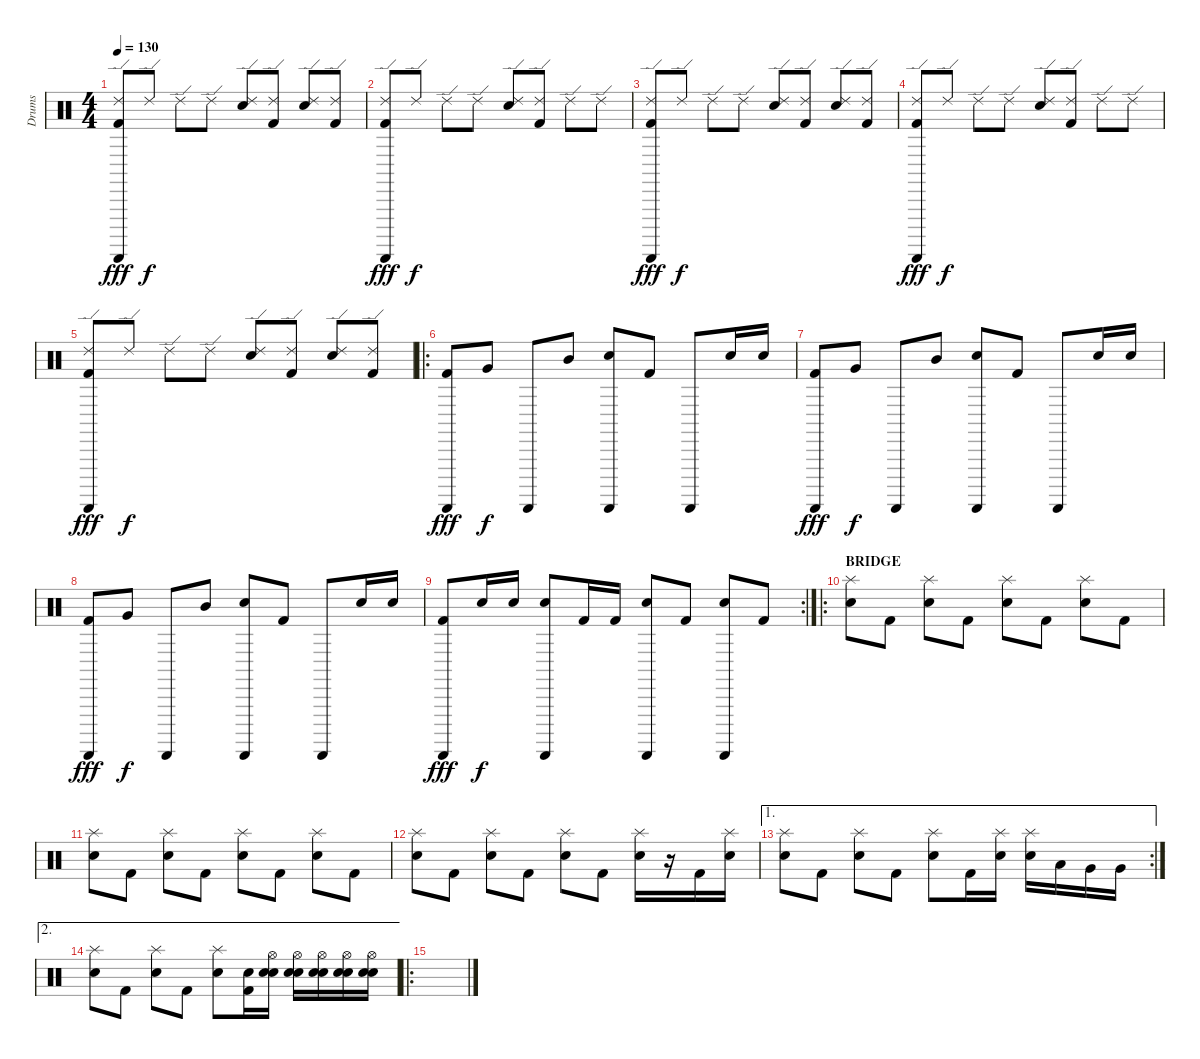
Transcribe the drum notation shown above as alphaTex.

\track ("Drums" "Drums") {instrument percussion}
\staff {score}
\articulation defaults
\ts (4 4)
\tempo 130
\clef neutral
\ks c
("Guiro (scrap-return)" "Kick (hit) 2" "Ride (edge) 2").8{dy fff} "Ride (edge) 2".8{dy f} "Ride (edge) 2".8 "Ride (edge) 2".8 ("Electric Snare (hit)" "Ride (edge) 2").8 ("Kick (hit) 2" "Ride (edge) 2").8 ("Electric Snare (hit)" "Ride (edge) 2").8 ("Kick (hit) 2" "Ride (edge) 2").8 |
("Guiro (scrap-return)" "Kick (hit) 2" "Ride (edge) 2").8{dy fff} "Ride (edge) 2".8{dy f} "Ride (edge) 2".8 "Ride (edge) 2".8 ("Electric Snare (hit)" "Ride (edge) 2").8 ("Kick (hit) 2" "Ride (edge) 2").8 "Ride (edge) 2".8 "Ride (edge) 2".8 |
("Guiro (scrap-return)" "Kick (hit) 2" "Ride (edge) 2").8{dy fff} "Ride (edge) 2".8{dy f} "Ride (edge) 2".8 "Ride (edge) 2".8 ("Electric Snare (hit)" "Ride (edge) 2").8 ("Kick (hit) 2" "Ride (edge) 2").8 ("Electric Snare (hit)" "Ride (edge) 2").8 ("Kick (hit) 2" "Ride (edge) 2").8 |
("Guiro (scrap-return)" "Kick (hit) 2" "Ride (edge) 2").8{dy fff} "Ride (edge) 2".8{dy f} "Ride (edge) 2".8 "Ride (edge) 2".8 ("Electric Snare (hit)" "Ride (edge) 2").8 ("Kick (hit) 2" "Ride (edge) 2").8 "Ride (edge) 2".8 "Ride (edge) 2".8 |
("Guiro (scrap-return)" "Kick (hit) 2" "Ride (edge) 2").8{dy fff} "Ride (edge) 2".8{dy f} "Ride (edge) 2".8 "Ride (edge) 2".8 ("Electric Snare (hit)" "Ride (edge) 2").8 ("Kick (hit) 2" "Ride (edge) 2").8 ("Electric Snare (hit)" "Ride (edge) 2").8 ("Kick (hit) 2" "Ride (edge) 2").8 |
\ro
("Guiro (scrap-return)" "Kick (hit) 2").8{dy fff} "Very Low Tom (hit)".8{dy f} "Guiro (scrap-return)".8 "Mid Tom (hit)".8 ("Guiro (scrap-return)" "Electric Snare (hit)").8 "Kick (hit) 2".8 "Guiro (scrap-return)".8 "Electric Snare (hit)".16 "Electric Snare (hit)".16 |
("Guiro (scrap-return)" "Kick (hit) 2").8{dy fff} "Very Low Tom (hit)".8{dy f} "Guiro (scrap-return)".8 "Mid Tom (hit)".8 ("Guiro (scrap-return)" "Electric Snare (hit)").8 "Kick (hit) 2".8 "Guiro (scrap-return)".8 "Electric Snare (hit)".16 "Electric Snare (hit)".16 |
("Guiro (scrap-return)" "Kick (hit) 2").8{dy fff} "Very Low Tom (hit)".8{dy f} "Guiro (scrap-return)".8 "Mid Tom (hit)".8 ("Guiro (scrap-return)" "Electric Snare (hit)").8 "Kick (hit) 2".8 "Guiro (scrap-return)".8 "Electric Snare (hit)".16 "Electric Snare (hit)".16 |
\rc 2
("Guiro (scrap-return)" "Kick (hit) 2").8{dy fff} "Electric Snare (hit)".16{dy f} "Electric Snare (hit)".16 ("Guiro (scrap-return)" "Electric Snare (hit)").8 "Kick (hit) 2".16 "Kick (hit) 2".16 ("Guiro (scrap-return)" "Electric Snare (hit)").8 "Kick (hit) 2".8 ("Guiro (scrap-return)" "Electric Snare (hit)").8 "Kick (hit) 2".8 |
\ro
\section ("" "BRIDGE")
("Splash (hit)" "Electric Snare (hit)").8 "Kick (hit) 2".8 ("Splash (hit)" "Electric Snare (hit)").8 "Kick (hit) 2".8 ("Splash (hit)" "Electric Snare (hit)").8 "Kick (hit) 2".8 ("Splash (hit)" "Electric Snare (hit)").8 "Kick (hit) 2".8 |
("Splash (hit)" "Electric Snare (hit)").8 "Kick (hit) 2".8 ("Splash (hit)" "Electric Snare (hit)").8 "Kick (hit) 2".8 ("Splash (hit)" "Electric Snare (hit)").8 "Kick (hit) 2".8 ("Splash (hit)" "Electric Snare (hit)").8 "Kick (hit) 2".8 |
("Splash (hit)" "Electric Snare (hit)").8 "Kick (hit) 2".8 ("Splash (hit)" "Electric Snare (hit)").8 "Kick (hit) 2".8 ("Splash (hit)" "Electric Snare (hit)").8 "Kick (hit) 2".8 ("Splash (hit)" "Electric Snare (hit)").16 r.16 "Kick (hit) 2".16 ("Splash (hit)" "Electric Snare (hit)").16 |
\ae 1
\rc 2
("Splash (hit)" "Electric Snare (hit)").8 "Kick (hit) 2".8 ("Splash (hit)" "Electric Snare (hit)").8 "Kick (hit) 2".8 ("Splash (hit)" "Electric Snare (hit)").8 "Kick (hit) 2".16 ("Splash (hit)" "Electric Snare (hit)").16 ("Splash (hit)" "Electric Snare (hit)").16 "Low Tom (hit)".16 "Very Low Tom (hit)".16 "Very Low Tom (hit)".16 |
\ae 2
("Splash (hit)" "Electric Snare (hit)").8 "Kick (hit) 2".8 ("Splash (hit)" "Electric Snare (hit)").8 "Kick (hit) 2".8 ("Splash (hit)" "Electric Snare (hit)").8 ("Electric Snare (hit)" "Kick (hit) 2").16 ("Hi-Hat (open)" "Electric Snare (hit)" "Electric Snare (hit)").16 ("Hi-Hat (open)" "Electric Snare (hit)" "Electric Snare (hit)").16 ("Hi-Hat (open)" "Electric Snare (hit)" "Electric Snare (hit)").16 ("Hi-Hat (open)" "Electric Snare (hit)" "Electric Snare (hit)").16 ("Hi-Hat (open)" "Electric Snare (hit)" "Electric Snare (hit)").16 |
\ro
